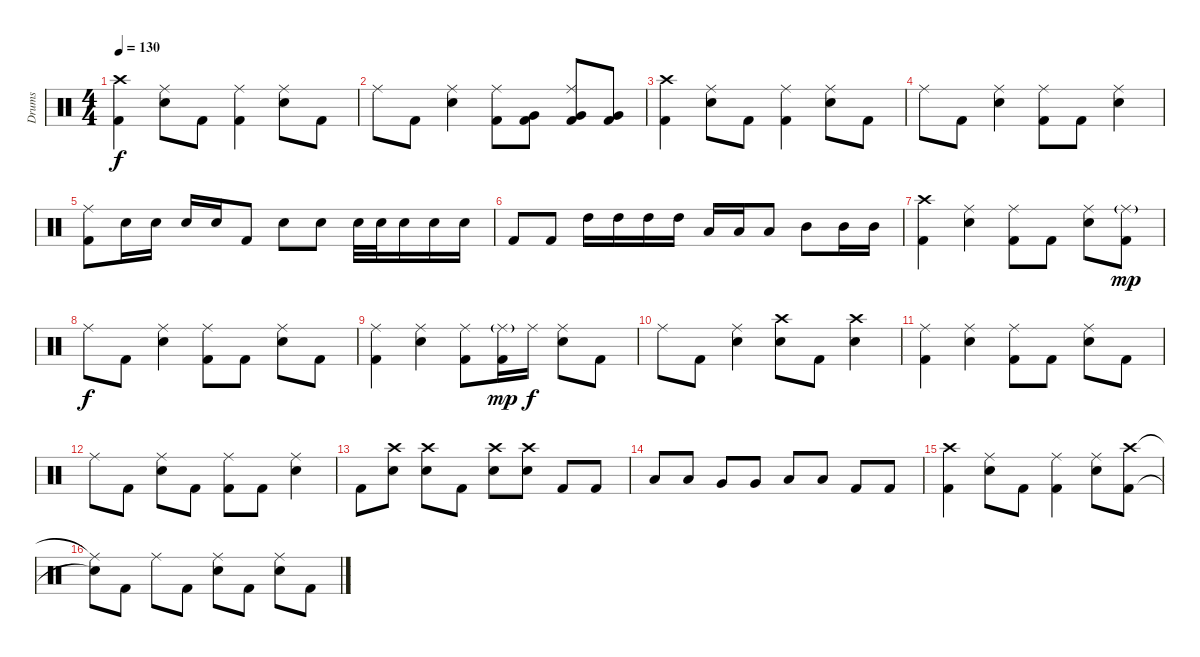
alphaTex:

\track ("Drums" "Drums") {instrument percussion}
\staff {score}
\articulation defaults
\ts (4 4)
\tempo 130
\clef neutral
\ks c
("Crash high (hit)" "Kick (hit) 2").4{dy f} ("Ride (middle)" "Electric Snare (hit)").8 "Kick (hit) 2".8 ("Ride (middle)" "Kick (hit) 2").4 ("Ride (middle)" "Electric Snare (hit)").8 "Kick (hit) 2".8 |
"Ride (middle)".8 "Kick (hit) 2".8 ("Ride (middle)" "Electric Snare (hit)").4 ("Ride (middle)" "Kick (hit) 2").8 ("Very Low Tom (hit)" "Kick (hit) 2").8 ("Ride (middle)" "Very Low Tom (hit)" "Kick (hit) 2").8 ("Very Low Tom (hit)" "Kick (hit) 2").8 |
("Crash high (hit)" "Kick (hit) 2").4 ("Ride (middle)" "Electric Snare (hit)").8 "Kick (hit) 2".8 ("Ride (middle)" "Kick (hit) 2").4 ("Ride (middle)" "Electric Snare (hit)").8 "Kick (hit) 2".8 |
"Ride (middle)".8 "Kick (hit) 2".8 ("Ride (middle)" "Electric Snare (hit)").4 ("Ride (middle)" "Kick (hit) 2").8 "Kick (hit) 2".8 ("Ride (middle)" "Electric Snare (hit)").4 |
("Ride (middle)" "Kick (hit) 2").8 "Electric Snare (hit)".16 "Electric Snare (hit)".16 "Electric Snare (hit)".16 "Electric Snare (hit)".16 "Kick (hit) 2".8 "Electric Snare (hit)".8 "Electric Snare (hit)".8 "Electric Snare (hit)".32 "Electric Snare (hit)".32 "Electric Snare (hit)".16 "Electric Snare (hit)".16 "Electric Snare (hit)".16 |
"Kick (hit) 2".8 "Kick (hit) 2".8 "High Tom (hit)".16 "High Tom (hit)".16 "High Tom (hit)".16 "High Tom (hit)".16 "Low Tom (hit)".16 "Low Tom (hit)".16 "Low Tom (hit)".8 "Mid Tom (hit)".8 "Mid Tom (hit)".16 "Mid Tom (hit)".16 |
("Crash high (hit)" "Kick (hit) 2").4 ("Ride (middle)" "Electric Snare (hit)").4 ("Ride (middle)" "Kick (hit) 2").8 "Kick (hit) 2".8 ("Ride (middle)" "Electric Snare (hit)").8 ("Ride (middle)"{g} "Kick (hit) 2").8{dy mp} |
"Ride (middle)".8{dy f} "Kick (hit) 2".8 ("Ride (middle)" "Electric Snare (hit)").4 ("Ride (middle)" "Kick (hit) 2").8 "Kick (hit) 2".8 ("Ride (middle)" "Electric Snare (hit)").8 "Kick (hit) 2".8 |
("Ride (middle)" "Kick (hit) 2").4 ("Ride (middle)" "Electric Snare (hit)").4 ("Ride (middle)" "Kick (hit) 2").8 ("Ride (middle)"{g} "Kick (hit) 2").16{dy mp} "Ride (middle)".16{dy f} ("Ride (middle)" "Electric Snare (hit)").8 "Kick (hit) 2".8 |
"Ride (middle)".8 "Kick (hit) 2".8 ("Ride (middle)" "Electric Snare (hit)").4 ("Crash high (hit)" "Electric Snare (hit)").8 "Kick (hit) 2".8 ("Crash high (hit)" "Electric Snare (hit)").4 |
("Ride (middle)" "Kick (hit) 2").4 ("Ride (middle)" "Electric Snare (hit)").4 ("Ride (middle)" "Kick (hit) 2").8 "Kick (hit) 2".8 ("Ride (middle)" "Electric Snare (hit)").8 "Kick (hit) 2".8 |
"Ride (middle)".8 "Kick (hit) 2".8 ("Ride (middle)" "Electric Snare (hit)").8 "Kick (hit) 2".8 ("Ride (middle)" "Kick (hit) 2").8 "Kick (hit) 2".8 ("Ride (middle)" "Electric Snare (hit)").4 |
"Kick (hit) 2".8 ("Crash high (hit)" "Electric Snare (hit)").8 ("Crash high (hit)" "Electric Snare (hit)").8 "Kick (hit) 2".8 ("Crash high (hit)" "Electric Snare (hit)").8 ("Crash high (hit)" "Electric Snare (hit)").8 "Kick (hit) 2".8 "Kick (hit) 2".8 |
"Low Tom (hit)".8 "Low Tom (hit)".8 "Very Low Tom (hit)".8 "Very Low Tom (hit)".8 "Low Floor Tom (hit)".8 "Low Floor Tom (hit)".8 "Kick (hit) 2".8 "Kick (hit) 2".8 |
("Crash high (hit)" "Kick (hit) 2").4 ("Ride (middle)" "Electric Snare (hit)").8 "Kick (hit) 2".8 ("Ride (middle)" "Kick (hit) 2").4 ("Ride (middle)" "Electric Snare (hit)").8 ("Crash high (hit)" "Kick (hit) 2").8 |
("Ride (middle)"{t} "Snare (hit)"{t}).8 "Kick (hit) 2".8 "Ride (middle)".8 "Kick (hit) 2".8 ("Ride (middle)" "Electric Snare (hit)").8 "Kick (hit) 2".8 ("Ride (middle)" "Electric Snare (hit)").8 "Kick (hit) 2".8
